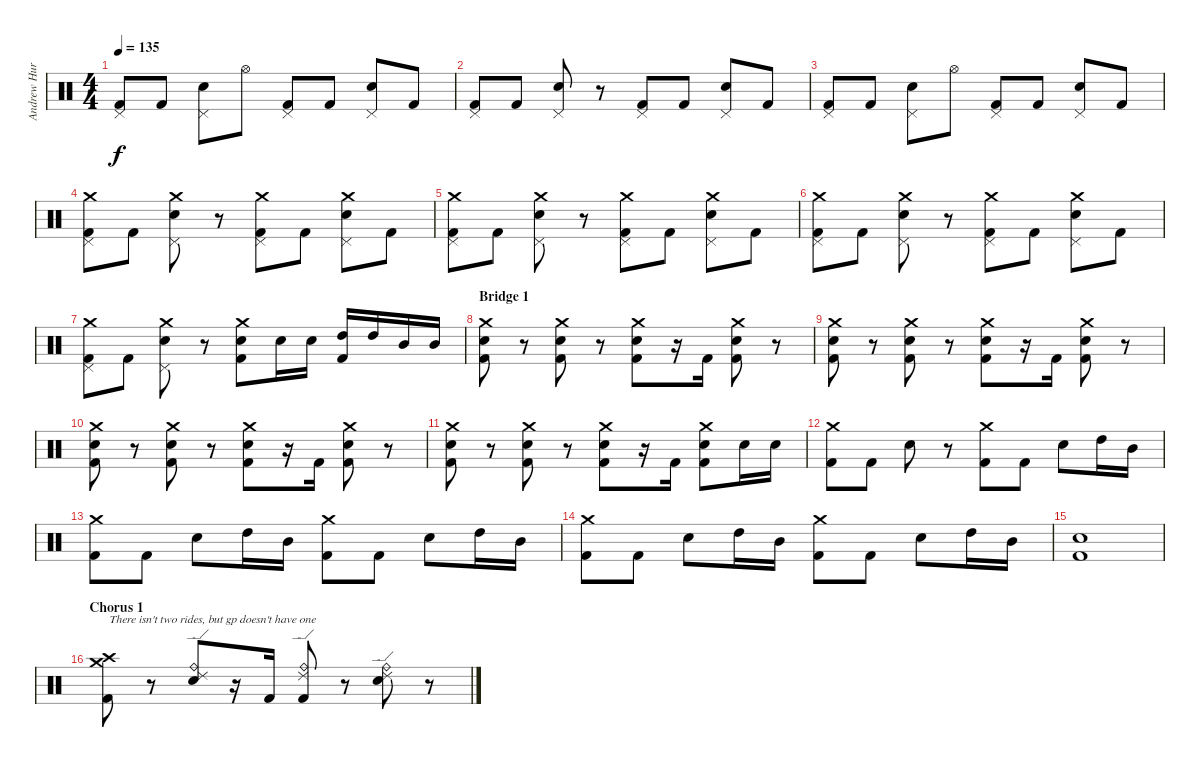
\track ("Andrew Hurley (Drums)" "Andrew Hur") {instrument percussion}
\staff {score}
\articulation defaults
\ts (4 4)
\tempo 135
\clef neutral
\ks c
("Pedal Hi-Hat (hit)" "Kick (hit) 2").8{dy f} "Kick (hit) 2".8 ("Pedal Hi-Hat (hit)" "Electric Snare (hit)").8 "Hi-Hat (open)".8 ("Pedal Hi-Hat (hit)" "Kick (hit) 2").8 "Kick (hit) 2".8 ("Pedal Hi-Hat (hit)" "Electric Snare (hit)").8 "Kick (hit) 2".8 |
("Pedal Hi-Hat (hit)" "Kick (hit) 2").8 "Kick (hit) 2".8 ("Pedal Hi-Hat (hit)" "Electric Snare (hit)").8 r.8 ("Pedal Hi-Hat (hit)" "Kick (hit) 2").8 "Kick (hit) 2".8 ("Pedal Hi-Hat (hit)" "Electric Snare (hit)").8 "Kick (hit) 2".8 |
("Pedal Hi-Hat (hit)" "Kick (hit) 2").8 "Kick (hit) 2".8 ("Pedal Hi-Hat (hit)" "Electric Snare (hit)").8 "Hi-Hat (open)".8 ("Pedal Hi-Hat (hit)" "Kick (hit) 2").8 "Kick (hit) 2".8 ("Pedal Hi-Hat (hit)" "Electric Snare (hit)").8 "Kick (hit) 2".8 |
("Crash medium (hit)" "Pedal Hi-Hat (hit)" "Kick (hit) 2").8 "Kick (hit) 2".8 ("Crash medium (hit)" "Pedal Hi-Hat (hit)" "Electric Snare (hit)").8 r.8 ("Crash medium (hit)" "Pedal Hi-Hat (hit)" "Kick (hit) 2").8 "Kick (hit) 2".8 ("Crash medium (hit)" "Pedal Hi-Hat (hit)" "Electric Snare (hit)").8 "Kick (hit) 2".8 |
("Crash medium (hit)" "Pedal Hi-Hat (hit)" "Kick (hit) 2").8 "Kick (hit) 2".8 ("Crash medium (hit)" "Pedal Hi-Hat (hit)" "Electric Snare (hit)").8 r.8 ("Crash medium (hit)" "Pedal Hi-Hat (hit)" "Kick (hit) 2").8 "Kick (hit) 2".8 ("Crash medium (hit)" "Pedal Hi-Hat (hit)" "Electric Snare (hit)").8 "Kick (hit) 2".8 |
("Crash medium (hit)" "Pedal Hi-Hat (hit)" "Kick (hit) 2").8 "Kick (hit) 2".8 ("Crash medium (hit)" "Pedal Hi-Hat (hit)" "Electric Snare (hit)").8 r.8 ("Crash medium (hit)" "Pedal Hi-Hat (hit)" "Kick (hit) 2").8 "Kick (hit) 2".8 ("Crash medium (hit)" "Pedal Hi-Hat (hit)" "Electric Snare (hit)").8 "Kick (hit) 2".8 |
("Crash medium (hit)" "Pedal Hi-Hat (hit)" "Kick (hit) 2").8 "Kick (hit) 2".8 ("Crash medium (hit)" "Pedal Hi-Hat (hit)" "Electric Snare (hit)").8 r.8 ("Crash medium (hit)" "Electric Snare (hit)" "Kick (hit) 2").8 "Electric Snare (hit)".16 "Electric Snare (hit)".16 ("High Tom (hit)" "Kick (hit) 2").16 "High Tom (hit)".16 "Mid Tom (hit)".16 "Mid Tom (hit)".16 |
\section ("" "Bridge 1")
("Crash medium (hit)" "Electric Snare (hit)" "Kick (hit) 2").8 r.8 ("Crash medium (hit)" "Electric Snare (hit)" "Kick (hit) 2").8 r.8 ("Crash medium (hit)" "Electric Snare (hit)" "Kick (hit) 2").8 r.16 "Kick (hit) 2".16 ("Crash medium (hit)" "Electric Snare (hit)" "Kick (hit) 2").8 r.8 |
("Crash medium (hit)" "Electric Snare (hit)" "Kick (hit) 2").8 r.8 ("Crash medium (hit)" "Electric Snare (hit)" "Kick (hit) 2").8 r.8 ("Crash medium (hit)" "Electric Snare (hit)" "Kick (hit) 2").8 r.16 "Kick (hit) 2".16 ("Crash medium (hit)" "Electric Snare (hit)" "Kick (hit) 2").8 r.8 |
("Crash medium (hit)" "Electric Snare (hit)" "Kick (hit) 2").8 r.8 ("Crash medium (hit)" "Electric Snare (hit)" "Kick (hit) 2").8 r.8 ("Crash medium (hit)" "Electric Snare (hit)" "Kick (hit) 2").8 r.16 "Kick (hit) 2".16 ("Crash medium (hit)" "Electric Snare (hit)" "Kick (hit) 2").8 r.8 |
("Crash medium (hit)" "Electric Snare (hit)" "Kick (hit) 2").8 r.8 ("Crash medium (hit)" "Electric Snare (hit)" "Kick (hit) 2").8 r.8 ("Crash medium (hit)" "Electric Snare (hit)" "Kick (hit) 2").8 r.16 "Kick (hit) 2".16 ("Crash medium (hit)" "Electric Snare (hit)" "Kick (hit) 2").8 "Electric Snare (hit)".16 "Electric Snare (hit)".16 |
("Crash medium (hit)" "Kick (hit) 2").8 "Kick (hit) 2".8 "Electric Snare (hit)".8 r.8 ("Crash medium (hit)" "Kick (hit) 2").8 "Kick (hit) 2".8 "Electric Snare (hit)".8 "High Tom (hit)".16 "Mid Tom (hit)".16 |
("Crash medium (hit)" "Kick (hit) 2").8 "Kick (hit) 2".8 "Electric Snare (hit)".8 "High Tom (hit)".16 "Mid Tom (hit)".16 ("Crash medium (hit)" "Kick (hit) 2").8 "Kick (hit) 2".8 "Electric Snare (hit)".8 "High Tom (hit)".16 "Mid Tom (hit)".16 |
("Crash medium (hit)" "Kick (hit) 2").8 "Kick (hit) 2".8 "Electric Snare (hit)".8 "High Tom (hit)".16 "Mid Tom (hit)".16 ("Crash medium (hit)" "Kick (hit) 2").8 "Kick (hit) 2".8 "Electric Snare (hit)".8 "High Tom (hit)".16 "Mid Tom (hit)".16 |
("Electric Snare (hit)" "Kick (hit) 2").1 |
\section ("" "Chorus 1")
("Crash medium (hit)" "Crash high (hit)" "Kick (hit) 2").8{txt "There isn't two rides, but gp doesn't have one"} r.8 ("Ride (bell)" "Ride (edge) 2" "Electric Snare (hit)").8 r.16 "Kick (hit) 2".16 ("Ride (bell)" "Ride (edge) 2" "Kick (hit) 2").8 r.8 ("Ride (bell)" "Ride (edge) 2" "Electric Snare (hit)").8 r.8
